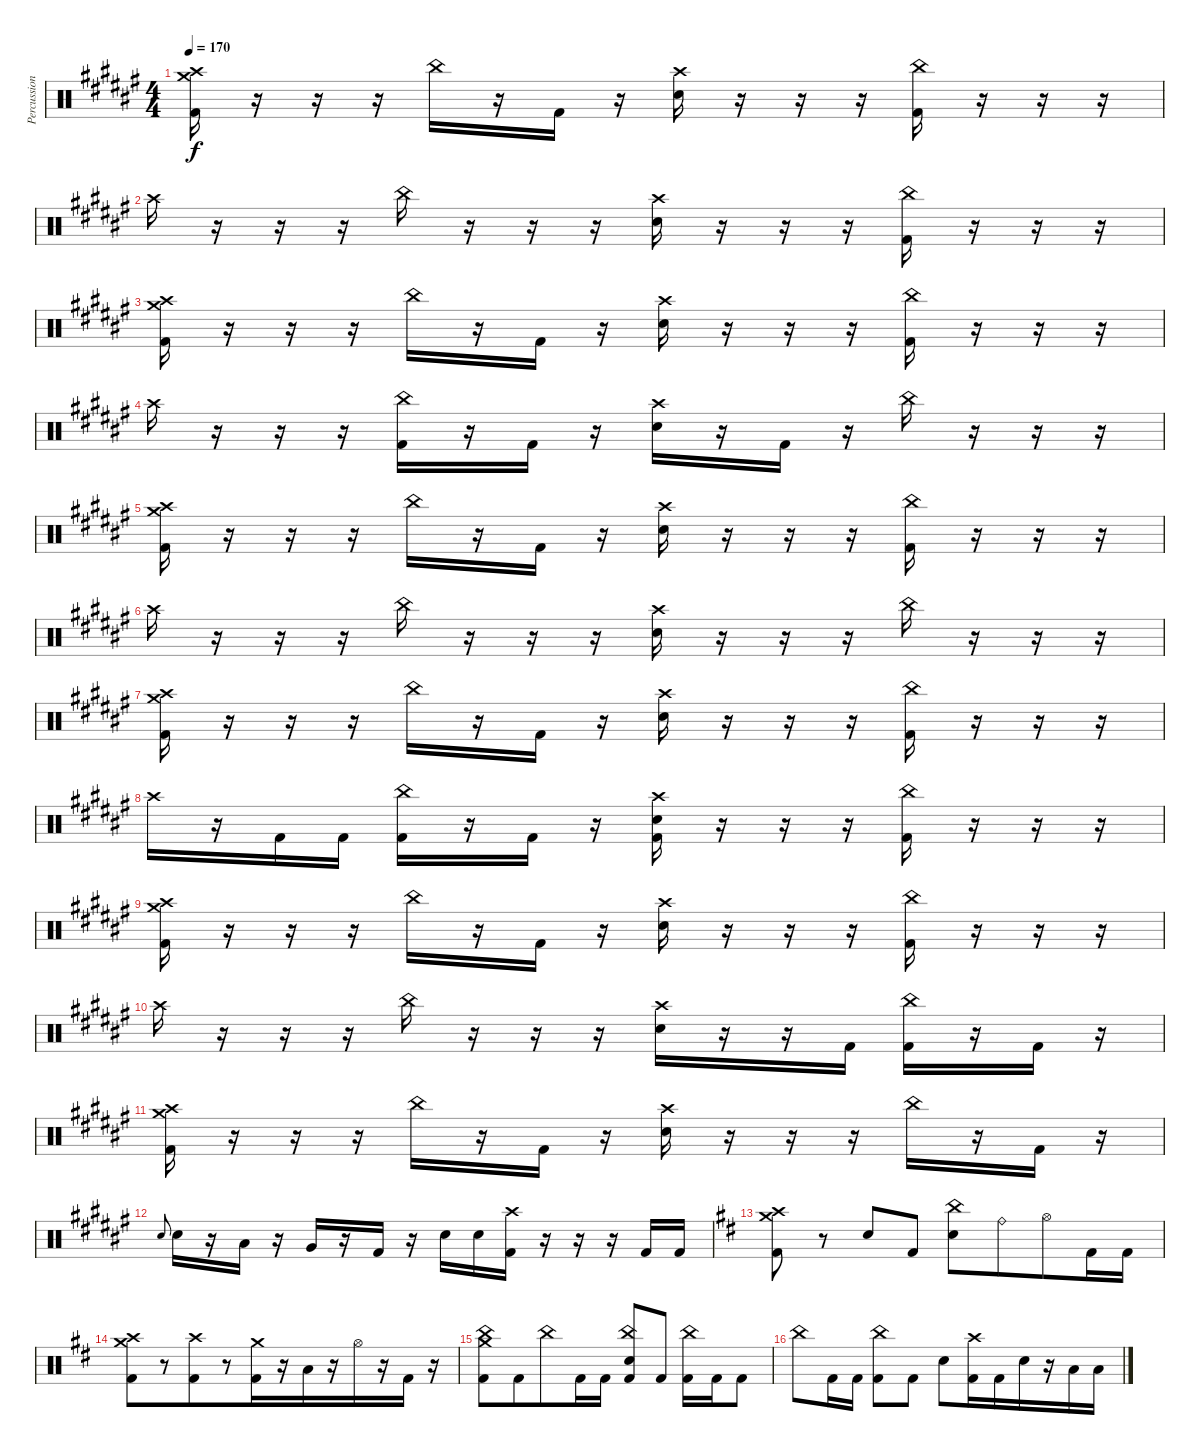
\track ("Percussion" "Percussion") {instrument percussion}
\staff {score}
\articulation defaults
\ts (4 4)
\tempo 170
\clef neutral
\ks d#minor
("Crash high (hit)" "Crash medium (hit)" "Kick (hit) 2").16{dy f} r.16 r.16 r.16 "China (hit)".16 r.16 "Kick (hit) 2".16 r.16 ("Crash high (hit)" "Electric Snare (hit)").16 r.16 r.16 r.16 ("China (hit)" "Kick (hit) 2").16 r.16 r.16 r.16 |
"Crash high (hit)".16 r.16 r.16 r.16 "China (hit)".16 r.16 r.16 r.16 ("Crash high (hit)" "Electric Snare (hit)").16 r.16 r.16 r.16 ("China (hit)" "Kick (hit) 2").16 r.16 r.16 r.16 |
("Crash high (hit)" "Crash medium (hit)" "Kick (hit) 2").16 r.16 r.16 r.16 "China (hit)".16 r.16 "Kick (hit) 2".16 r.16 ("Crash high (hit)" "Electric Snare (hit)").16 r.16 r.16 r.16 ("China (hit)" "Kick (hit) 2").16 r.16 r.16 r.16 |
"Crash high (hit)".16 r.16 r.16 r.16 ("China (hit)" "Kick (hit) 2").16 r.16 "Kick (hit) 2".16 r.16 ("Crash high (hit)" "Electric Snare (hit)").16 r.16 "Kick (hit) 2".16 r.16 "China (hit)".16 r.16 r.16 r.16 |
("Crash high (hit)" "Crash medium (hit)" "Kick (hit) 2").16 r.16 r.16 r.16 "China (hit)".16 r.16 "Kick (hit) 2".16 r.16 ("Crash high (hit)" "Electric Snare (hit)").16 r.16 r.16 r.16 ("China (hit)" "Kick (hit) 2").16 r.16 r.16 r.16 |
"Crash high (hit)".16 r.16 r.16 r.16 "China (hit)".16 r.16 r.16 r.16 ("Crash high (hit)" "Electric Snare (hit)").16 r.16 r.16 r.16 "China (hit)".16 r.16 r.16 r.16 |
("Crash high (hit)" "Crash medium (hit)" "Kick (hit) 2").16 r.16 r.16 r.16 "China (hit)".16 r.16 "Kick (hit) 2".16 r.16 ("Crash high (hit)" "Electric Snare (hit)").16 r.16 r.16 r.16 ("China (hit)" "Kick (hit) 2").16 r.16 r.16 r.16 |
"Crash high (hit)".16 r.16 "Kick (hit) 2".16 "Kick (hit) 2".16 ("China (hit)" "Kick (hit) 2").16 r.16 "Kick (hit) 2".16 r.16 ("Crash high (hit)" "Electric Snare (hit)" "Kick (hit) 2").16 r.16 r.16 r.16 ("China (hit)" "Kick (hit) 2").16 r.16 r.16 r.16 |
("Crash high (hit)" "Crash medium (hit)" "Kick (hit) 2").16 r.16 r.16 r.16 "China (hit)".16 r.16 "Kick (hit) 2".16 r.16 ("Crash high (hit)" "Electric Snare (hit)").16 r.16 r.16 r.16 ("China (hit)" "Kick (hit) 2").16 r.16 r.16 r.16 |
"Crash high (hit)".16 r.16 r.16 r.16 "China (hit)".16 r.16 r.16 r.16 ("Crash high (hit)" "Electric Snare (hit)").16 r.16 r.16 "Kick (hit) 2".16 ("China (hit)" "Kick (hit) 2").16 r.16 "Kick (hit) 2".16 r.16 |
("Crash high (hit)" "Crash medium (hit)" "Kick (hit) 2").16 r.16 r.16 r.16 "China (hit)".16 r.16 "Kick (hit) 2".16 r.16 ("Crash high (hit)" "Electric Snare (hit)").16 r.16 r.16 r.16 "China (hit)".16 r.16 "Kick (hit) 2".16 r.16 |
"Electric Snare (hit)".8{gr onbeat} "Electric Snare (hit)".16 r.16 "Low Tom (hit)".16 r.16 "Very Low Tom (hit)".16 r.16 "Kick (hit) 2".16 r.16 "Electric Snare (hit)".16 "Electric Snare (hit)".16 ("Crash high (hit)" "Kick (hit) 2").16 r.16 r.16 r.16 "Kick (hit) 2".16 "Kick (hit) 2".16 |
\ks bminor
("Crash medium (hit)" "Crash high (hit)" "Kick (hit) 2").8 r.8{beam merge} "Snare (hit)"{x}.8 "Kick (hit) 2".8 ("China (hit)" "Electric Snare (hit)").8 "Ride (bell)".8{beam merge} "Hi-Hat (open)".8{beam merge} "Kick (hit) 2".16 "Kick (hit) 2".16 |
("Crash medium (hit)" "Crash high (hit)" "Kick (hit) 2").8{beam merge} r.8 ("Crash high (hit)" "Kick (hit) 2").8{beam merge} r.8{beam merge} ("Crash medium (hit)" "Kick (hit) 2").16 r.16 "Low Tom (hit)".16{beam merge} r.16 "Hi-Hat (open)".16{beam merge} r.16{beam merge} "Kick (hit) 2".16 r.16 |
("China (hit)" "Crash medium (hit)" "Kick (hit) 2").8 "Kick (hit) 2".8{beam merge} "China (hit)".8{beam merge} "Kick (hit) 2".16{beam merge} "Kick (hit) 2".16 ("China (hit)" "Electric Snare (hit)" "Kick (hit) 2").8{beam merge} "Kick (hit) 2".8 ("China (hit)" "Kick (hit) 2").16 "Kick (hit) 2".16{beam merge} "Kick (hit) 2".8 |
"China (hit)".8 "Kick (hit) 2".16{beam merge} "Kick (hit) 2".16 ("China (hit)" "Kick (hit) 2").8 "Kick (hit) 2".8 "Electric Snare (hit)".8 ("Crash high (hit)" "Kick (hit) 2").16 "Kick (hit) 2".16{beam merge} "Electric Snare (hit)".16{beam merge} r.16{beam merge} "Low Tom (hit)".16 "Low Tom (hit)".16
